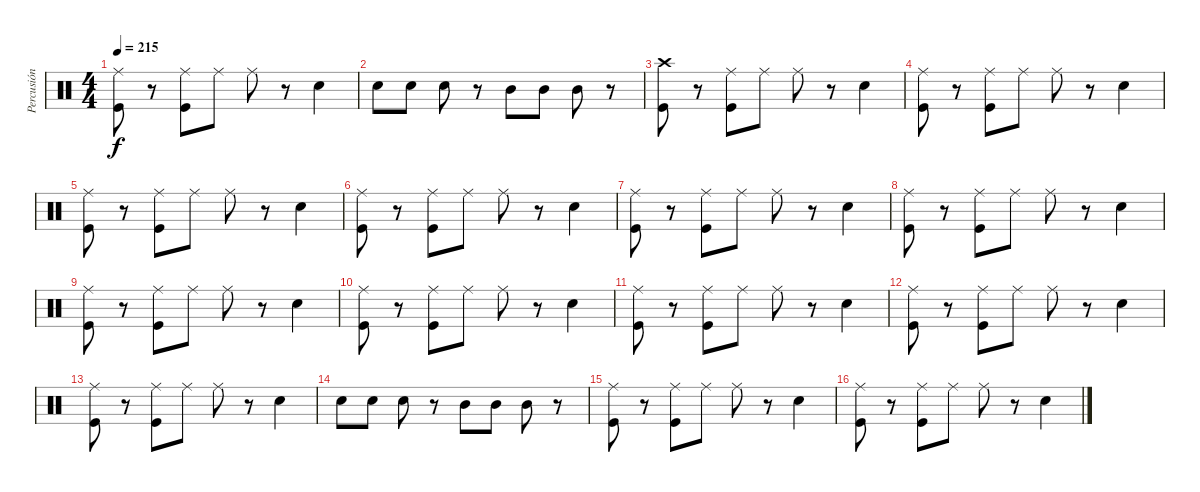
\track ("Percusión" "Percusión") {instrument percussion}
\staff {score}
\articulation defaults
\ts (4 4)
\tempo 215
\clef neutral
\ks c
("Ride (middle)" "Kick (hit)").8{dy f} r.8 ("Ride (middle)" "Kick (hit)").8 "Ride (middle)".8 "Ride (middle)".8 r.8 "Snare (hit) 2".4 |
"Snare (hit) 2".8 "Snare (hit) 2".8 "Snare (hit) 2".8 r.8 "Mid Tom (hit)".8 "Mid Tom (hit)".8 "Mid Tom (hit)".8 r.8 |
("Crash high (hit)" "Kick (hit)").8 r.8 ("Ride (middle)" "Kick (hit)").8 "Ride (middle)".8 "Ride (middle)".8 r.8 "Snare (hit) 2".4 |
("Ride (middle)" "Kick (hit)").8 r.8 ("Ride (middle)" "Kick (hit)").8 "Ride (middle)".8 "Ride (middle)".8 r.8 "Snare (hit) 2".4 |
("Ride (middle)" "Kick (hit)").8 r.8 ("Ride (middle)" "Kick (hit)").8 "Ride (middle)".8 "Ride (middle)".8 r.8 "Snare (hit) 2".4 |
("Ride (middle)" "Kick (hit)").8 r.8 ("Ride (middle)" "Kick (hit)").8 "Ride (middle)".8 "Ride (middle)".8 r.8 "Snare (hit) 2".4 |
("Ride (middle)" "Kick (hit)").8 r.8 ("Ride (middle)" "Kick (hit)").8 "Ride (middle)".8 "Ride (middle)".8 r.8 "Snare (hit) 2".4 |
("Ride (middle)" "Kick (hit)").8 r.8 ("Ride (middle)" "Kick (hit)").8 "Ride (middle)".8 "Ride (middle)".8 r.8 "Snare (hit) 2".4 |
("Ride (middle)" "Kick (hit)").8 r.8 ("Ride (middle)" "Kick (hit)").8 "Ride (middle)".8 "Ride (middle)".8 r.8 "Snare (hit) 2".4 |
("Ride (middle)" "Kick (hit)").8 r.8 ("Ride (middle)" "Kick (hit)").8 "Ride (middle)".8 "Ride (middle)".8 r.8 "Snare (hit) 2".4 |
("Ride (middle)" "Kick (hit)").8 r.8 ("Ride (middle)" "Kick (hit)").8 "Ride (middle)".8 "Ride (middle)".8 r.8 "Snare (hit) 2".4 |
("Ride (middle)" "Kick (hit)").8 r.8 ("Ride (middle)" "Kick (hit)").8 "Ride (middle)".8 "Ride (middle)".8 r.8 "Snare (hit) 2".4 |
("Ride (middle)" "Kick (hit)").8 r.8 ("Ride (middle)" "Kick (hit)").8 "Ride (middle)".8 "Ride (middle)".8 r.8 "Snare (hit) 2".4 |
"Snare (hit) 2".8 "Snare (hit) 2".8 "Snare (hit) 2".8 r.8 "Mid Tom (hit)".8 "Mid Tom (hit)".8 "Mid Tom (hit)".8 r.8 |
("Ride (middle)" "Kick (hit)").8 r.8 ("Ride (middle)" "Kick (hit)").8 "Ride (middle)".8 "Ride (middle)".8 r.8 "Snare (hit) 2".4 |
("Ride (middle)" "Kick (hit)").8 r.8 ("Ride (middle)" "Kick (hit)").8 "Ride (middle)".8 "Ride (middle)".8 r.8 "Snare (hit) 2".4
